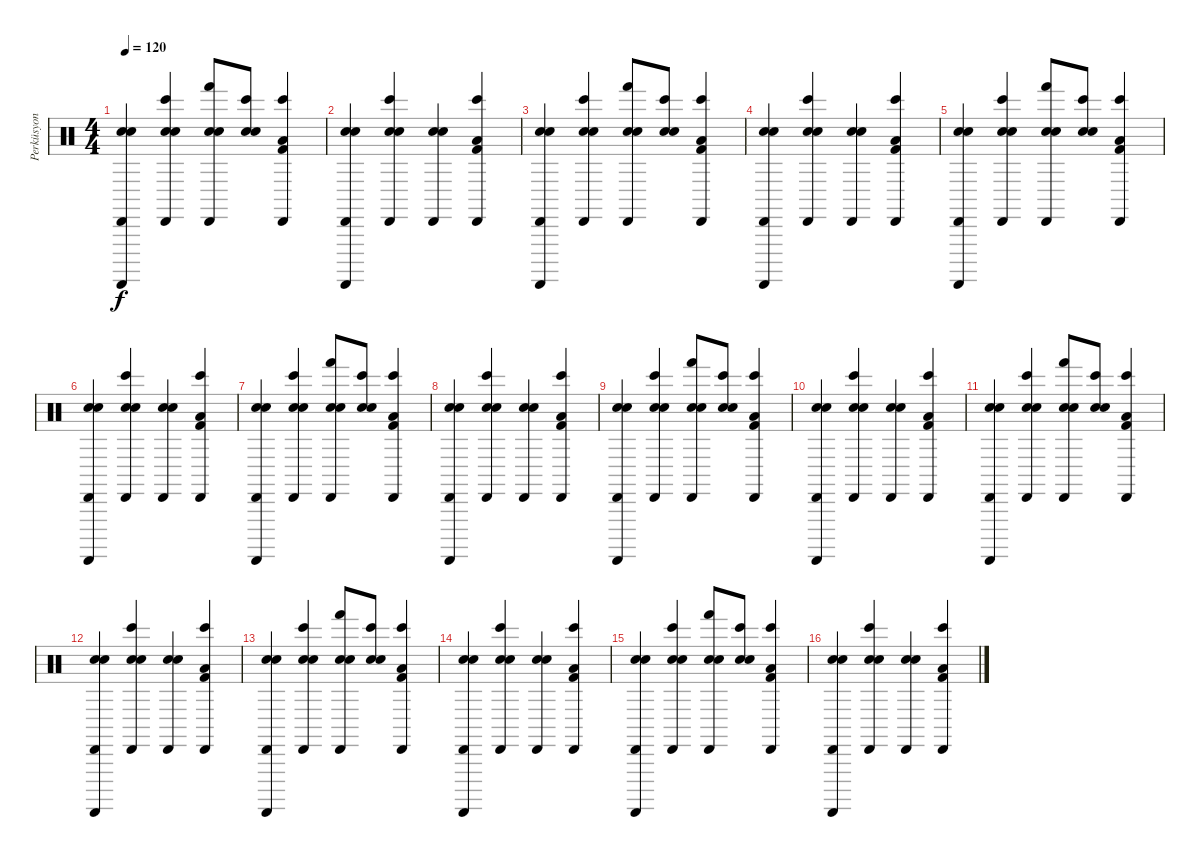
\track ("Perküsyon" "Perküsyon") {instrument percussion}
\staff {score}
\articulation defaults
\ts (4 4)
\tempo 120
\clef neutral
\ks c
("Cabasa (hit)" "Guiro (scrap-return)" "Snare (hit) 2" "Electric Snare (hit)").4{dy f} ("Cabasa (hit)" "Bongo High (hit)" "Snare (hit) 2" "Electric Snare (hit)").4 ("Cabasa (hit)" "Hand (hit)" "Snare (hit) 2" "Electric Snare (hit)").8 ("Bongo High (hit)" "Snare (hit) 2" "Electric Snare (hit)").8 ("Cabasa (hit)" "Bongo High (hit)" "Kick (hit) 2" "Low Tom (hit)").4 |
("Cabasa (hit)" "Guiro (scrap-return)" "Snare (hit) 2" "Electric Snare (hit)").4 ("Cabasa (hit)" "Bongo High (hit)" "Snare (hit) 2" "Electric Snare (hit)").4 ("Cabasa (hit)" "Snare (hit) 2" "Electric Snare (hit)").4 ("Cabasa (hit)" "Bongo High (hit)" "Kick (hit) 2" "Low Tom (hit)").4 |
("Cabasa (hit)" "Guiro (scrap-return)" "Snare (hit) 2" "Electric Snare (hit)").4 ("Cabasa (hit)" "Bongo High (hit)" "Snare (hit) 2" "Electric Snare (hit)").4 ("Cabasa (hit)" "Hand (hit)" "Snare (hit) 2" "Electric Snare (hit)").8 ("Bongo High (hit)" "Snare (hit) 2" "Electric Snare (hit)").8 ("Cabasa (hit)" "Bongo High (hit)" "Kick (hit) 2" "Low Tom (hit)").4 |
("Cabasa (hit)" "Guiro (scrap-return)" "Snare (hit) 2" "Electric Snare (hit)").4 ("Cabasa (hit)" "Bongo High (hit)" "Snare (hit) 2" "Electric Snare (hit)").4 ("Cabasa (hit)" "Snare (hit) 2" "Electric Snare (hit)").4 ("Cabasa (hit)" "Bongo High (hit)" "Kick (hit) 2" "Low Tom (hit)").4 |
("Cabasa (hit)" "Guiro (scrap-return)" "Snare (hit) 2" "Electric Snare (hit)").4 ("Cabasa (hit)" "Bongo High (hit)" "Snare (hit) 2" "Electric Snare (hit)").4 ("Cabasa (hit)" "Hand (hit)" "Snare (hit) 2" "Electric Snare (hit)").8 ("Bongo High (hit)" "Snare (hit) 2" "Electric Snare (hit)").8 ("Cabasa (hit)" "Bongo High (hit)" "Kick (hit) 2" "Low Tom (hit)").4 |
("Cabasa (hit)" "Guiro (scrap-return)" "Snare (hit) 2" "Electric Snare (hit)").4 ("Cabasa (hit)" "Bongo High (hit)" "Snare (hit) 2" "Electric Snare (hit)").4 ("Cabasa (hit)" "Snare (hit) 2" "Electric Snare (hit)").4 ("Cabasa (hit)" "Bongo High (hit)" "Kick (hit) 2" "Low Tom (hit)").4 |
("Cabasa (hit)" "Guiro (scrap-return)" "Snare (hit) 2" "Electric Snare (hit)").4 ("Cabasa (hit)" "Bongo High (hit)" "Snare (hit) 2" "Electric Snare (hit)").4 ("Cabasa (hit)" "Hand (hit)" "Snare (hit) 2" "Electric Snare (hit)").8 ("Bongo High (hit)" "Snare (hit) 2" "Electric Snare (hit)").8 ("Cabasa (hit)" "Bongo High (hit)" "Kick (hit) 2" "Low Tom (hit)").4 |
("Cabasa (hit)" "Guiro (scrap-return)" "Snare (hit) 2" "Electric Snare (hit)").4 ("Cabasa (hit)" "Bongo High (hit)" "Snare (hit) 2" "Electric Snare (hit)").4 ("Cabasa (hit)" "Snare (hit) 2" "Electric Snare (hit)").4 ("Cabasa (hit)" "Bongo High (hit)" "Kick (hit) 2" "Low Tom (hit)").4 |
("Cabasa (hit)" "Guiro (scrap-return)" "Snare (hit) 2" "Electric Snare (hit)").4 ("Cabasa (hit)" "Bongo High (hit)" "Snare (hit) 2" "Electric Snare (hit)").4 ("Cabasa (hit)" "Hand (hit)" "Snare (hit) 2" "Electric Snare (hit)").8 ("Bongo High (hit)" "Snare (hit) 2" "Electric Snare (hit)").8 ("Cabasa (hit)" "Bongo High (hit)" "Kick (hit) 2" "Low Tom (hit)").4 |
("Cabasa (hit)" "Guiro (scrap-return)" "Snare (hit) 2" "Electric Snare (hit)").4 ("Cabasa (hit)" "Bongo High (hit)" "Snare (hit) 2" "Electric Snare (hit)").4 ("Cabasa (hit)" "Snare (hit) 2" "Electric Snare (hit)").4 ("Cabasa (hit)" "Bongo High (hit)" "Kick (hit) 2" "Low Tom (hit)").4 |
("Cabasa (hit)" "Guiro (scrap-return)" "Snare (hit) 2" "Electric Snare (hit)").4 ("Cabasa (hit)" "Bongo High (hit)" "Snare (hit) 2" "Electric Snare (hit)").4 ("Cabasa (hit)" "Hand (hit)" "Snare (hit) 2" "Electric Snare (hit)").8 ("Bongo High (hit)" "Snare (hit) 2" "Electric Snare (hit)").8 ("Cabasa (hit)" "Bongo High (hit)" "Kick (hit) 2" "Low Tom (hit)").4 |
("Cabasa (hit)" "Guiro (scrap-return)" "Snare (hit) 2" "Electric Snare (hit)").4 ("Cabasa (hit)" "Bongo High (hit)" "Snare (hit) 2" "Electric Snare (hit)").4 ("Cabasa (hit)" "Snare (hit) 2" "Electric Snare (hit)").4 ("Cabasa (hit)" "Bongo High (hit)" "Kick (hit) 2" "Low Tom (hit)").4 |
("Cabasa (hit)" "Guiro (scrap-return)" "Snare (hit) 2" "Electric Snare (hit)").4 ("Cabasa (hit)" "Bongo High (hit)" "Snare (hit) 2" "Electric Snare (hit)").4 ("Cabasa (hit)" "Hand (hit)" "Snare (hit) 2" "Electric Snare (hit)").8 ("Bongo High (hit)" "Snare (hit) 2" "Electric Snare (hit)").8 ("Cabasa (hit)" "Bongo High (hit)" "Kick (hit) 2" "Low Tom (hit)").4 |
("Cabasa (hit)" "Guiro (scrap-return)" "Snare (hit) 2" "Electric Snare (hit)").4 ("Cabasa (hit)" "Bongo High (hit)" "Snare (hit) 2" "Electric Snare (hit)").4 ("Cabasa (hit)" "Snare (hit) 2" "Electric Snare (hit)").4 ("Cabasa (hit)" "Bongo High (hit)" "Kick (hit) 2" "Low Tom (hit)").4 |
("Cabasa (hit)" "Guiro (scrap-return)" "Snare (hit) 2" "Electric Snare (hit)").4 ("Cabasa (hit)" "Bongo High (hit)" "Snare (hit) 2" "Electric Snare (hit)").4 ("Cabasa (hit)" "Hand (hit)" "Snare (hit) 2" "Electric Snare (hit)").8 ("Bongo High (hit)" "Snare (hit) 2" "Electric Snare (hit)").8 ("Cabasa (hit)" "Bongo High (hit)" "Kick (hit) 2" "Low Tom (hit)").4 |
("Cabasa (hit)" "Guiro (scrap-return)" "Snare (hit) 2" "Electric Snare (hit)").4 ("Cabasa (hit)" "Bongo High (hit)" "Snare (hit) 2" "Electric Snare (hit)").4 ("Cabasa (hit)" "Snare (hit) 2" "Electric Snare (hit)").4 ("Cabasa (hit)" "Bongo High (hit)" "Kick (hit) 2" "Low Tom (hit)").4
